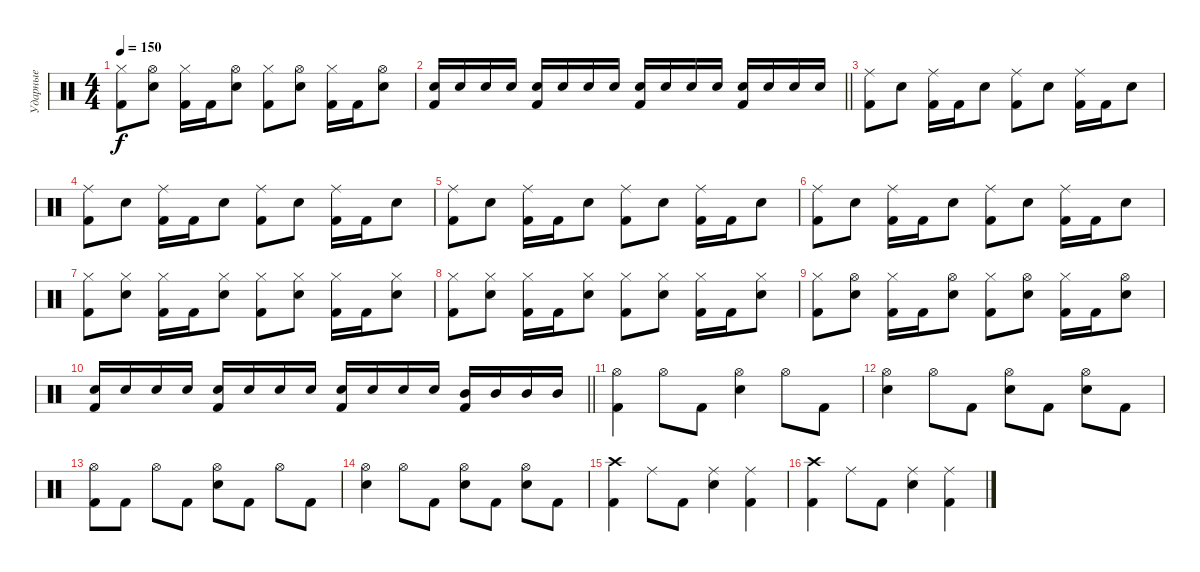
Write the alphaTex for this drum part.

\track ("Ударные" "Ударные") {instrument percussion}
\staff {score}
\articulation defaults
\ts (4 4)
\tempo 150
\clef neutral
\ks c
("Hi-Hat (closed)" "Kick (hit) 2").8{dy f} ("Hi-Hat (open)" "Snare (hit) 2").8 ("Hi-Hat (closed)" "Kick (hit) 2").16 "Kick (hit) 2".16 ("Hi-Hat (open)" "Snare (hit) 2").8 ("Hi-Hat (closed)" "Kick (hit) 2").8 ("Hi-Hat (open)" "Snare (hit) 2").8 ("Hi-Hat (closed)" "Kick (hit) 2").16 "Kick (hit) 2".16 ("Hi-Hat (open)" "Snare (hit) 2").8 |
\barLineRight lightlight
("Kick (hit) 2" "Snare (hit) 2").16 "Snare (hit) 2".16 "Snare (hit) 2".16 "Snare (hit) 2".16 ("Kick (hit) 2" "Snare (hit) 2").16 "Snare (hit) 2".16 "Snare (hit) 2".16 "Snare (hit) 2".16 ("Kick (hit) 2" "Snare (hit) 2").16 "Snare (hit) 2".16 "Snare (hit) 2".16 "Snare (hit) 2".16 ("Kick (hit) 2" "Snare (hit) 2").16 "Snare (hit) 2".16 "Snare (hit) 2".16 "Snare (hit) 2".16 |
("Ride (middle)" "Kick (hit) 2").8 "Snare (hit) 2".8 ("Ride (middle)" "Kick (hit) 2").16 "Kick (hit) 2".16 "Snare (hit) 2".8 ("Ride (middle)" "Kick (hit) 2").8 "Snare (hit) 2".8 ("Ride (middle)" "Kick (hit) 2").16 "Kick (hit) 2".16 "Snare (hit) 2".8 |
("Ride (middle)" "Kick (hit) 2").8 "Snare (hit) 2".8 ("Ride (middle)" "Kick (hit) 2").16 "Kick (hit) 2".16 "Snare (hit) 2".8 ("Ride (middle)" "Kick (hit) 2").8 "Snare (hit) 2".8 ("Ride (middle)" "Kick (hit) 2").16 "Kick (hit) 2".16 "Snare (hit) 2".8 |
("Ride (middle)" "Kick (hit) 2").8 "Snare (hit) 2".8 ("Ride (middle)" "Kick (hit) 2").16 "Kick (hit) 2".16 "Snare (hit) 2".8 ("Ride (middle)" "Kick (hit) 2").8 "Snare (hit) 2".8 ("Ride (middle)" "Kick (hit) 2").16 "Kick (hit) 2".16 "Snare (hit) 2".8 |
("Ride (middle)" "Kick (hit) 2").8 "Snare (hit) 2".8 ("Ride (middle)" "Kick (hit) 2").16 "Kick (hit) 2".16 "Snare (hit) 2".8 ("Ride (middle)" "Kick (hit) 2").8 "Snare (hit) 2".8 ("Ride (middle)" "Kick (hit) 2").16 "Kick (hit) 2".16 "Snare (hit) 2".8 |
("Hi-Hat (closed)" "Kick (hit) 2").8 ("Hi-Hat (closed)" "Snare (hit) 2").8 ("Hi-Hat (closed)" "Kick (hit) 2").16 "Kick (hit) 2".16 ("Hi-Hat (closed)" "Snare (hit) 2").8 ("Hi-Hat (closed)" "Kick (hit) 2").8 ("Hi-Hat (closed)" "Snare (hit) 2").8 ("Hi-Hat (closed)" "Kick (hit) 2").16 "Kick (hit) 2".16 ("Hi-Hat (closed)" "Snare (hit) 2").8 |
("Hi-Hat (closed)" "Kick (hit) 2").8 ("Hi-Hat (closed)" "Snare (hit) 2").8 ("Hi-Hat (closed)" "Kick (hit) 2").16 "Kick (hit) 2".16 ("Hi-Hat (closed)" "Snare (hit) 2").8 ("Hi-Hat (closed)" "Kick (hit) 2").8 ("Hi-Hat (closed)" "Snare (hit) 2").8 ("Hi-Hat (closed)" "Kick (hit) 2").16 "Kick (hit) 2".16 ("Hi-Hat (closed)" "Snare (hit) 2").8 |
("Hi-Hat (closed)" "Kick (hit) 2").8 ("Hi-Hat (open)" "Snare (hit) 2").8 ("Hi-Hat (closed)" "Kick (hit) 2").16 "Kick (hit) 2".16 ("Hi-Hat (open)" "Snare (hit) 2").8 ("Hi-Hat (closed)" "Kick (hit) 2").8 ("Hi-Hat (open)" "Snare (hit) 2").8 ("Hi-Hat (closed)" "Kick (hit) 2").16 "Kick (hit) 2".16 ("Hi-Hat (open)" "Snare (hit) 2").8 |
\barLineRight lightlight
("Kick (hit) 2" "Snare (hit) 2").16 "Snare (hit) 2".16 "Snare (hit) 2".16 "Snare (hit) 2".16 ("Kick (hit) 2" "Snare (hit) 2").16 "Snare (hit) 2".16 "Snare (hit) 2".16 "Snare (hit) 2".16 ("Kick (hit) 2" "Snare (hit) 2").16 "Snare (hit) 2".16 "Snare (hit) 2".16 "Snare (hit) 2".16 ("Kick (hit) 2" "Mid Tom (hit)").16 "Mid Tom (hit)".16 "Mid Tom (hit)".16 "Mid Tom (hit)".16 |
("Hi-Hat (open)" "Kick (hit) 2").4 "Hi-Hat (open)".8 "Kick (hit) 2".8 ("Hi-Hat (open)" "Snare (hit) 2").4 "Hi-Hat (open)".8 "Kick (hit) 2".8 |
("Hi-Hat (open)" "Snare (hit) 2").4 "Hi-Hat (open)".8 "Kick (hit) 2".8 ("Hi-Hat (open)" "Snare (hit) 2").8 "Kick (hit) 2".8 ("Hi-Hat (open)" "Snare (hit) 2").8 "Kick (hit) 2".8 |
("Hi-Hat (open)" "Kick (hit) 2").8 "Kick (hit) 2".8 "Hi-Hat (open)".8 "Kick (hit) 2".8 ("Hi-Hat (open)" "Snare (hit) 2").8 "Kick (hit) 2".8 "Hi-Hat (open)".8 "Kick (hit) 2".8 |
("Hi-Hat (open)" "Snare (hit) 2").4 "Hi-Hat (open)".8 "Kick (hit) 2".8 ("Hi-Hat (open)" "Snare (hit) 2").8 "Kick (hit) 2".8 ("Hi-Hat (open)" "Snare (hit) 2").8 "Kick (hit) 2".8 |
("Crash high (hit)" "Kick (hit) 2").4 "Ride (middle)".8 "Kick (hit) 2".8 ("Ride (middle)" "Snare (hit) 2").4 ("Ride (middle)" "Kick (hit) 2").4 |
("Crash high (hit)" "Kick (hit) 2").4 "Ride (middle)".8 "Kick (hit) 2".8 ("Ride (middle)" "Snare (hit) 2").4 ("Ride (middle)" "Kick (hit) 2").4
